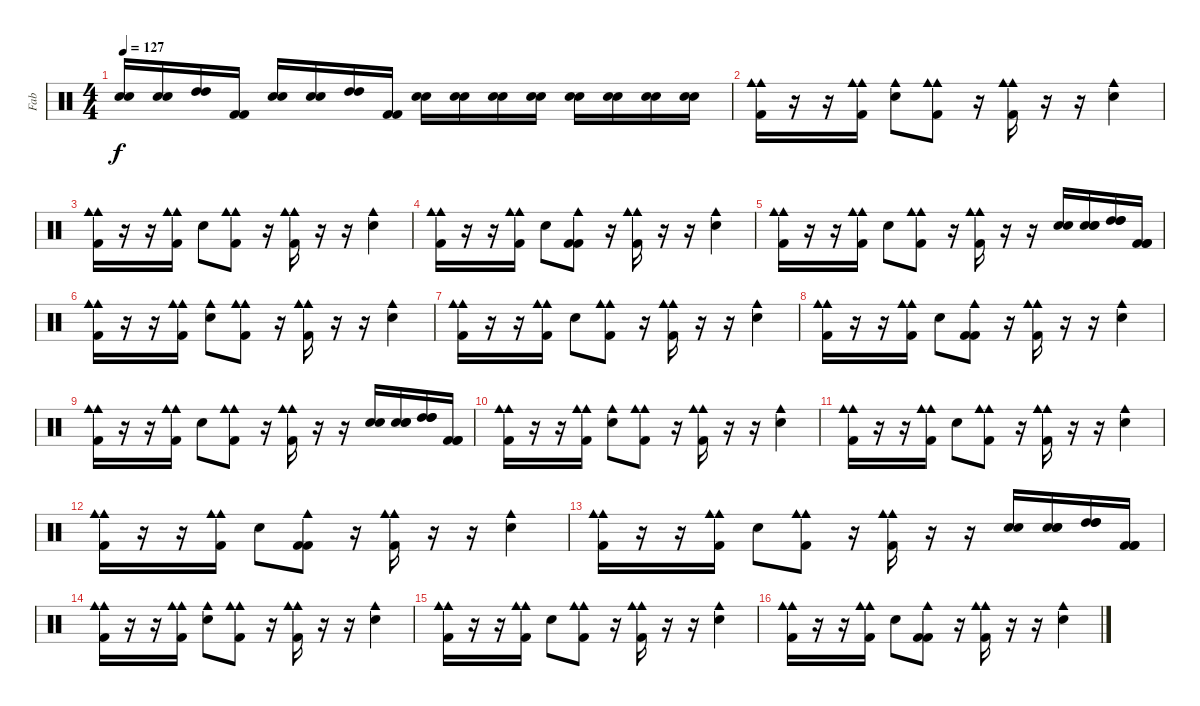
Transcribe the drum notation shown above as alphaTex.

\track ("Fab" "Fab") {instrument percussion}
\staff {score}
\articulation defaults
\ts (4 4)
\tempo 127
\clef neutral
\ks c
("Electric Snare (hit)" "Electric Snare (hit)").16{dy f} ("Snare (hit) 2" "Snare (hit) 2").16 ("High Tom (hit)" "High Tom (hit)").16 ("Kick (hit) 2" "Kick (hit) 2").16 ("Electric Snare (hit)" "Electric Snare (hit)").16 ("Snare (hit) 2" "Snare (hit) 2").16 ("High Tom (hit)" "High Tom (hit)").16 ("Kick (hit) 2" "Kick (hit) 2").16 ("Electric Snare (hit)" "Electric Snare (hit)").16 ("Electric Snare (hit)" "Electric Snare (hit)").16 ("Electric Snare (hit)" "Electric Snare (hit)").16 ("Electric Snare (hit)" "Electric Snare (hit)").16 ("Electric Snare (hit)" "Electric Snare (hit)").16 ("Electric Snare (hit)" "Electric Snare (hit)").16 ("Electric Snare (hit)" "Electric Snare (hit)").16 ("Electric Snare (hit)" "Electric Snare (hit)").16 |
("Cowbell medium (hit)" "Kick (hit) 2" "Cowbell medium (hit)").16 r.16 r.16 ("Cowbell medium (hit)" "Kick (hit) 2" "Cowbell medium (hit)").16 ("Electric Snare (hit)" "Cowbell medium (hit)").8 ("Cowbell medium (hit)" "Kick (hit) 2" "Cowbell medium (hit)").8 r.16 ("Cowbell medium (hit)" "Kick (hit) 2" "Cowbell medium (hit)").16 r.16 r.16 ("Electric Snare (hit)" "Cowbell medium (hit)").4 |
("Cowbell medium (hit)" "Kick (hit) 2" "Cowbell medium (hit)").16 r.16 r.16 ("Cowbell medium (hit)" "Kick (hit) 2" "Cowbell medium (hit)").16 "Electric Snare (hit)".8 ("Cowbell medium (hit)" "Kick (hit) 2" "Cowbell medium (hit)").8 r.16 ("Cowbell medium (hit)" "Kick (hit) 2" "Cowbell medium (hit)").16 r.16 r.16 ("Electric Snare (hit)" "Cowbell medium (hit)").4 |
("Cowbell medium (hit)" "Kick (hit) 2" "Cowbell medium (hit)").16 r.16 r.16 ("Cowbell medium (hit)" "Kick (hit) 2" "Cowbell medium (hit)").16 "Electric Snare (hit)".8 ("Kick (hit) 2" "Kick (hit) 2" "Cowbell medium (hit)").8 r.16 ("Cowbell medium (hit)" "Kick (hit) 2" "Cowbell medium (hit)").16 r.16 r.16 ("Electric Snare (hit)" "Cowbell medium (hit)").4 |
("Cowbell medium (hit)" "Kick (hit) 2" "Cowbell medium (hit)").16 r.16 r.16 ("Cowbell medium (hit)" "Kick (hit) 2" "Cowbell medium (hit)").16 "Electric Snare (hit)".8 ("Cowbell medium (hit)" "Kick (hit) 2" "Cowbell medium (hit)").8 r.16 ("Cowbell medium (hit)" "Kick (hit) 2" "Cowbell medium (hit)").16 r.16 r.16 ("Electric Snare (hit)" "Electric Snare (hit)").16 ("Snare (hit) 2" "Snare (hit) 2" "Snare (hit) 2").16 ("High Tom (hit)" "High Tom (hit)" "High Tom (hit)").16 ("Kick (hit) 2" "Kick (hit) 2" "Kick (hit) 2").16 |
("Cowbell medium (hit)" "Kick (hit) 2" "Cowbell medium (hit)").16 r.16 r.16 ("Cowbell medium (hit)" "Kick (hit) 2" "Cowbell medium (hit)").16 ("Electric Snare (hit)" "Cowbell medium (hit)").8 ("Cowbell medium (hit)" "Kick (hit) 2" "Cowbell medium (hit)").8 r.16 ("Cowbell medium (hit)" "Kick (hit) 2" "Cowbell medium (hit)").16 r.16 r.16 ("Electric Snare (hit)" "Cowbell medium (hit)").4 |
("Cowbell medium (hit)" "Kick (hit) 2" "Cowbell medium (hit)").16 r.16 r.16 ("Cowbell medium (hit)" "Kick (hit) 2" "Cowbell medium (hit)").16 "Electric Snare (hit)".8 ("Cowbell medium (hit)" "Kick (hit) 2" "Cowbell medium (hit)").8 r.16 ("Cowbell medium (hit)" "Kick (hit) 2" "Cowbell medium (hit)").16 r.16 r.16 ("Electric Snare (hit)" "Cowbell medium (hit)").4 |
("Cowbell medium (hit)" "Kick (hit) 2" "Cowbell medium (hit)").16 r.16 r.16 ("Cowbell medium (hit)" "Kick (hit) 2" "Cowbell medium (hit)").16 "Electric Snare (hit)".8 ("Kick (hit) 2" "Kick (hit) 2" "Cowbell medium (hit)").8 r.16 ("Cowbell medium (hit)" "Kick (hit) 2" "Cowbell medium (hit)").16 r.16 r.16 ("Electric Snare (hit)" "Cowbell medium (hit)").4 |
("Cowbell medium (hit)" "Kick (hit) 2" "Cowbell medium (hit)").16 r.16 r.16 ("Cowbell medium (hit)" "Kick (hit) 2" "Cowbell medium (hit)").16 "Electric Snare (hit)".8 ("Cowbell medium (hit)" "Kick (hit) 2" "Cowbell medium (hit)").8 r.16 ("Cowbell medium (hit)" "Kick (hit) 2" "Cowbell medium (hit)").16 r.16 r.16 ("Electric Snare (hit)" "Electric Snare (hit)").16 ("Snare (hit) 2" "Snare (hit) 2" "Snare (hit) 2").16 ("High Tom (hit)" "High Tom (hit)" "High Tom (hit)").16 ("Kick (hit) 2" "Kick (hit) 2" "Kick (hit) 2").16 |
("Cowbell medium (hit)" "Kick (hit) 2" "Cowbell medium (hit)").16 r.16 r.16 ("Cowbell medium (hit)" "Kick (hit) 2" "Cowbell medium (hit)").16 ("Electric Snare (hit)" "Cowbell medium (hit)").8 ("Cowbell medium (hit)" "Kick (hit) 2" "Cowbell medium (hit)").8 r.16 ("Cowbell medium (hit)" "Kick (hit) 2" "Cowbell medium (hit)").16 r.16 r.16 ("Electric Snare (hit)" "Cowbell medium (hit)").4 |
("Cowbell medium (hit)" "Kick (hit) 2" "Cowbell medium (hit)").16 r.16 r.16 ("Cowbell medium (hit)" "Kick (hit) 2" "Cowbell medium (hit)").16 "Electric Snare (hit)".8 ("Cowbell medium (hit)" "Kick (hit) 2" "Cowbell medium (hit)").8 r.16 ("Cowbell medium (hit)" "Kick (hit) 2" "Cowbell medium (hit)").16 r.16 r.16 ("Electric Snare (hit)" "Cowbell medium (hit)").4 |
("Cowbell medium (hit)" "Kick (hit) 2" "Cowbell medium (hit)").16 r.16 r.16 ("Cowbell medium (hit)" "Kick (hit) 2" "Cowbell medium (hit)").16 "Electric Snare (hit)".8 ("Kick (hit) 2" "Kick (hit) 2" "Cowbell medium (hit)").8 r.16 ("Cowbell medium (hit)" "Kick (hit) 2" "Cowbell medium (hit)").16 r.16 r.16 ("Electric Snare (hit)" "Cowbell medium (hit)").4 |
("Cowbell medium (hit)" "Kick (hit) 2" "Cowbell medium (hit)").16 r.16 r.16 ("Cowbell medium (hit)" "Kick (hit) 2" "Cowbell medium (hit)").16 "Electric Snare (hit)".8 ("Cowbell medium (hit)" "Kick (hit) 2" "Cowbell medium (hit)").8 r.16 ("Cowbell medium (hit)" "Kick (hit) 2" "Cowbell medium (hit)").16 r.16 r.16 ("Electric Snare (hit)" "Electric Snare (hit)").16 ("Snare (hit) 2" "Snare (hit) 2" "Snare (hit) 2").16 ("High Tom (hit)" "High Tom (hit)" "High Tom (hit)").16 ("Kick (hit) 2" "Kick (hit) 2" "Kick (hit) 2").16 |
("Cowbell medium (hit)" "Kick (hit) 2" "Cowbell medium (hit)").16 r.16 r.16 ("Cowbell medium (hit)" "Kick (hit) 2" "Cowbell medium (hit)").16 ("Electric Snare (hit)" "Cowbell medium (hit)").8 ("Cowbell medium (hit)" "Kick (hit) 2" "Cowbell medium (hit)").8 r.16 ("Cowbell medium (hit)" "Kick (hit) 2" "Cowbell medium (hit)").16 r.16 r.16 ("Electric Snare (hit)" "Cowbell medium (hit)").4 |
("Cowbell medium (hit)" "Kick (hit) 2" "Cowbell medium (hit)").16 r.16 r.16 ("Cowbell medium (hit)" "Kick (hit) 2" "Cowbell medium (hit)").16 "Electric Snare (hit)".8 ("Cowbell medium (hit)" "Kick (hit) 2" "Cowbell medium (hit)").8 r.16 ("Cowbell medium (hit)" "Kick (hit) 2" "Cowbell medium (hit)").16 r.16 r.16 ("Electric Snare (hit)" "Cowbell medium (hit)").4 |
("Cowbell medium (hit)" "Kick (hit) 2" "Cowbell medium (hit)").16 r.16 r.16 ("Cowbell medium (hit)" "Kick (hit) 2" "Cowbell medium (hit)").16 "Electric Snare (hit)".8 ("Kick (hit) 2" "Kick (hit) 2" "Cowbell medium (hit)").8 r.16 ("Cowbell medium (hit)" "Kick (hit) 2" "Cowbell medium (hit)").16 r.16 r.16 ("Electric Snare (hit)" "Cowbell medium (hit)").4
